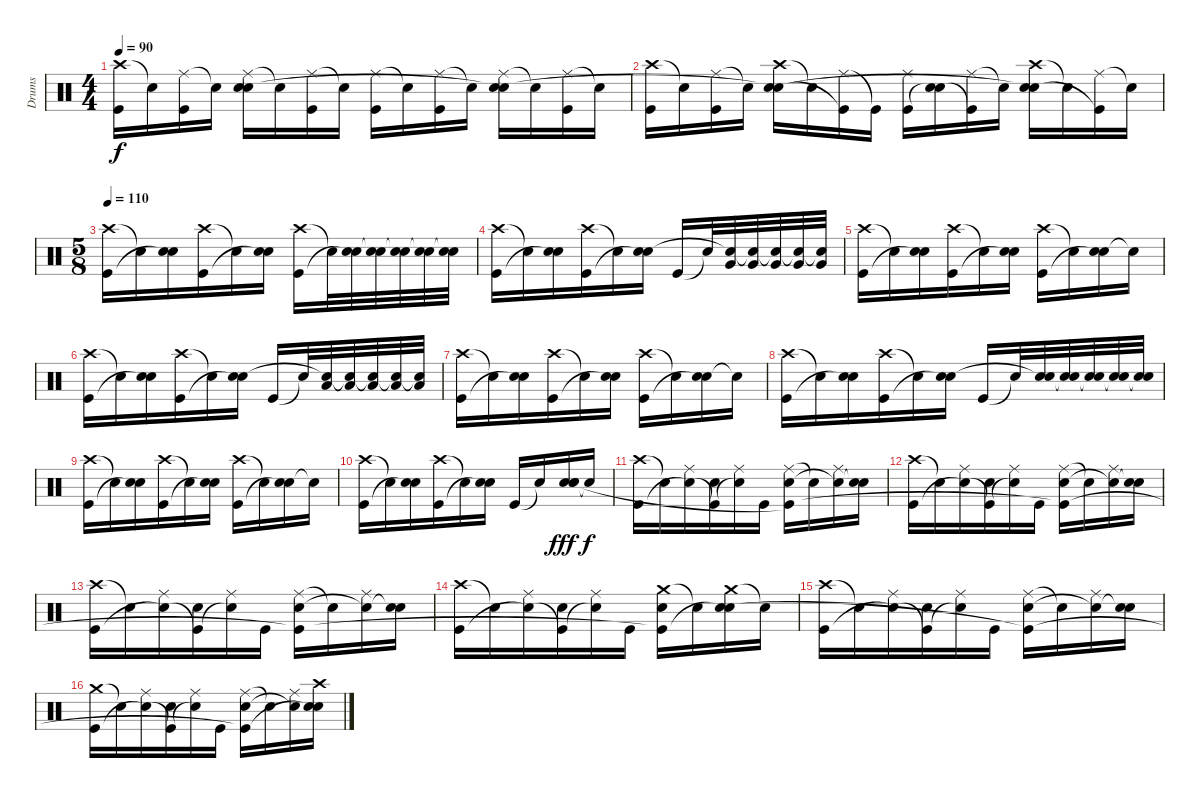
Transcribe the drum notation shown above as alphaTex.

\track ("Drums" "Drums") {instrument percussion}
\staff {score}
\articulation defaults
\ts (4 4)
\tempo 90
\clef neutral
\ks c
("Crash high (hit)" "Kick (hit)").16{dy f} "Snare (hit)"{t}.16 ("Ride (middle)" "Kick (hit)").16 "Snare (hit)"{t}.16 ("Ride (middle)" "Electric Snare (hit)" "Snare (hit)"{t}).16 "Snare (hit)"{t}.16 ("Ride (middle)" "Kick (hit)").16 "Snare (hit)"{t}.16 ("Ride (middle)" "Kick (hit)").16 "Snare (hit)"{t}.16 ("Ride (middle)" "Kick (hit)").16 "Snare (hit)"{t}.16 ("Ride (middle)" "Electric Snare (hit)" "Snare (hit)"{t}).16 "Snare (hit)"{t}.16 ("Ride (middle)" "Kick (hit)").16 "Snare (hit)"{t}.16 |
("Crash high (hit)" "Kick (hit)").16 "Snare (hit)"{t}.16 ("Ride (middle)" "Kick (hit)").16 "Snare (hit)"{t}.16 ("Crash high (hit)" "Electric Snare (hit)" "Snare (hit)"{t}).16 "Snare (hit)"{t}.16 ("Ride (middle)" "Kick (hit)"{t}).16 "Kick (hit)"{t}.16 ("Ride (middle)" "Kick (hit)").16 ("Electric Snare (hit)" "Snare (hit)"{t}).16 ("Ride (middle)" "Kick (hit)"{t}).16 "Snare (hit)"{t}.16 ("Crash high (hit)" "Electric Snare (hit)" "Snare (hit)"{t}).16 "Snare (hit)"{t}.16 ("Ride (middle)" "Kick (hit)"{t}).16 "Snare (hit)"{t}.16 |
\ts (5 8)
\tempo 110
("Crash high (hit)" "Kick (hit)").16 "Snare (hit)"{t}.16 ("Electric Snare (hit)" "Snare (hit)"{t}).16 ("Crash high (hit)" "Kick (hit)").16 "Snare (hit)"{t}.16 ("Electric Snare (hit)" "Snare (hit)"{t}).16 ("Crash high (hit)" "Kick (hit)").16 "Snare (hit)"{t}.32 ("Electric Snare (hit)" "Snare (hit)"{t}).32 ("Electric Snare (hit)" "Snare (hit)"{t}).32 ("Electric Snare (hit)" "Snare (hit)"{t}).32 ("Electric Snare (hit)" "Snare (hit)"{t}).32 ("Electric Snare (hit)" "Snare (hit)"{t}).32 |
("Crash high (hit)" "Kick (hit)").16 "Snare (hit)"{t}.16 ("Electric Snare (hit)" "Snare (hit)"{t}).16 ("Crash high (hit)" "Kick (hit)").16 "Snare (hit)"{t}.16 ("Electric Snare (hit)" "Snare (hit)"{t}).16 "Kick (hit)".16 "Snare (hit)"{t}.32 ("Very Low Tom (hit)" "Snare (hit)"{t}).32 ("Very Low Tom (hit)" "Snare (hit)"{t}).32 ("Very Low Tom (hit)" "Snare (hit)"{t}).32 ("Very Low Tom (hit)" "Snare (hit)"{t}).32 ("Very Low Tom (hit)" "Snare (hit)"{t}).32 |
("Crash high (hit)" "Kick (hit)").16 "Snare (hit)"{t}.16 ("Electric Snare (hit)" "Snare (hit)"{t}).16 ("Crash high (hit)" "Kick (hit)").16 "Snare (hit)"{t}.16 ("Electric Snare (hit)" "Snare (hit)"{t}).16 ("Crash high (hit)" "Kick (hit)").16 "Snare (hit)"{t}.16 ("Electric Snare (hit)" "Snare (hit)"{t}).16 "Snare (hit)"{t}.16 |
("Crash high (hit)" "Kick (hit)").16 "Snare (hit)"{t}.16 ("Electric Snare (hit)" "Snare (hit)"{t}).16 ("Crash high (hit)" "Kick (hit)").16 "Snare (hit)"{t}.16 ("Electric Snare (hit)" "Snare (hit)"{t}).16 "Kick (hit)".16 "Snare (hit)"{t}.32 ("Low Tom (hit)" "Snare (hit)"{t}).32 ("Low Tom (hit)" "Snare (hit)"{t}).32 ("Low Tom (hit)" "Snare (hit)"{t}).32 ("Low Tom (hit)" "Snare (hit)"{t}).32 ("Low Tom (hit)" "Snare (hit)"{t}).32 |
("Crash high (hit)" "Kick (hit)").16 "Snare (hit)"{t}.16 ("Electric Snare (hit)" "Snare (hit)"{t}).16 ("Crash high (hit)" "Kick (hit)").16 "Snare (hit)"{t}.16 ("Electric Snare (hit)" "Snare (hit)"{t}).16 ("Crash high (hit)" "Kick (hit)").16 "Snare (hit)"{t}.16 ("Electric Snare (hit)" "Snare (hit)"{t}).16 "Snare (hit)"{t}.16 |
("Crash high (hit)" "Kick (hit)").16 "Snare (hit)"{t}.16 ("Electric Snare (hit)" "Snare (hit)"{t}).16 ("Crash high (hit)" "Kick (hit)").16 "Snare (hit)"{t}.16 ("Electric Snare (hit)" "Snare (hit)"{t}).16 "Kick (hit)".16 "Snare (hit)"{t}.32 ("Electric Snare (hit)" "Snare (hit)"{t}).32 ("Electric Snare (hit)" "Snare (hit)"{t}).32 ("Electric Snare (hit)" "Snare (hit)"{t}).32 ("Electric Snare (hit)" "Snare (hit)"{t}).32 ("Electric Snare (hit)" "Snare (hit)"{t}).32 |
("Crash high (hit)" "Kick (hit)").16 "Snare (hit)"{t}.16 ("Electric Snare (hit)" "Snare (hit)"{t}).16 ("Crash high (hit)" "Kick (hit)").16 "Snare (hit)"{t}.16 ("Electric Snare (hit)" "Snare (hit)"{t}).16 ("Crash high (hit)" "Kick (hit)").16 "Snare (hit)"{t}.16 ("Electric Snare (hit)" "Snare (hit)"{t}).16 "Snare (hit)"{t}.16 |
("Crash high (hit)" "Kick (hit)").16 "Snare (hit)"{t}.16 ("Electric Snare (hit)" "Snare (hit)"{t}).16 ("Crash high (hit)" "Kick (hit)").16 "Snare (hit)"{t}.16 ("Electric Snare (hit)" "Snare (hit)"{t}).16 "Kick (hit)".16 "Snare (hit)"{t}.16 ("Snare (hit) 2" "Electric Snare (hit)" "Snare (hit)").16{bd 480 dy fff} "Snare (hit)"{t}.16{dy f} |
("Crash high (hit)" "Kick (hit)").16 "Snare (hit)"{t}.16 ("Ride (middle)" "Snare (hit)"{t}).16 ("Electric Snare (hit)" "Kick (hit)"{t}).16 ("Ride (middle)" "Snare (hit)"{t}).16 "Kick (hit)".16 ("Ride (middle)" "Electric Snare (hit)" "Kick (hit)"{t}).16 "Snare (hit)"{t}.16 ("Ride (middle)" "Snare (hit)"{t}).16 ("Electric Snare (hit)" "Snare (hit)"{t}).16 |
("Crash high (hit)" "Kick (hit)").16 "Snare (hit)"{t}.16 ("Ride (middle)" "Snare (hit)"{t}).16 ("Electric Snare (hit)" "Kick (hit)"{t}).16 ("Ride (middle)" "Snare (hit)"{t}).16 "Kick (hit)".16 ("Ride (middle)" "Electric Snare (hit)" "Kick (hit)"{t}).16 "Snare (hit)"{t}.16 ("Ride (middle)" "Snare (hit)"{t}).16 ("Electric Snare (hit)" "Snare (hit)"{t}).16 |
("Crash high (hit)" "Kick (hit)").16 "Snare (hit)"{t}.16 ("Ride (middle)" "Snare (hit)"{t}).16 ("Electric Snare (hit)" "Kick (hit)"{t}).16 ("Ride (middle)" "Snare (hit)"{t}).16 "Kick (hit)".16 ("Ride (middle)" "Electric Snare (hit)" "Kick (hit)"{t}).16 "Snare (hit)"{t}.16 ("Ride (middle)" "Snare (hit)"{t}).16 ("Electric Snare (hit)" "Snare (hit)"{t}).16 |
("Crash high (hit)" "Kick (hit)").16 "Snare (hit)"{t}.16 ("Ride (middle)" "Snare (hit)"{t}).16 ("Electric Snare (hit)" "Kick (hit)"{t}).16 ("Ride (middle)" "Snare (hit)"{t}).16 "Kick (hit)".16 ("Crash medium (hit)" "Electric Snare (hit)" "Kick (hit)"{t}).16 "Snare (hit)"{t}.16 ("Crash medium (hit)" "Electric Snare (hit)" "Snare (hit)"{t}).16 "Snare (hit)"{t}.16 |
("Crash high (hit)" "Kick (hit)").16 "Snare (hit)"{t}.16 ("Ride (middle)" "Snare (hit)"{t}).16 ("Electric Snare (hit)" "Kick (hit)"{t}).16 ("Ride (middle)" "Snare (hit)"{t}).16 "Kick (hit)".16 ("Ride (middle)" "Electric Snare (hit)" "Kick (hit)"{t}).16 "Snare (hit)"{t}.16 ("Ride (middle)" "Snare (hit)"{t}).16 ("Electric Snare (hit)" "Snare (hit)"{t}).16 |
("Crash medium (hit)" "Kick (hit)").16 "Snare (hit)"{t}.16 ("Ride (middle)" "Snare (hit)"{t}).16 ("Electric Snare (hit)" "Kick (hit)"{t}).16 ("Ride (middle)" "Snare (hit)"{t}).16 "Kick (hit)".16 ("Ride (middle)" "Electric Snare (hit)" "Kick (hit)"{t}).16 "Snare (hit)"{t}.16 ("Ride (middle)" "Snare (hit)"{t}).16 ("Crash high (hit)" "Electric Snare (hit)" "Snare (hit)"{t}).16
